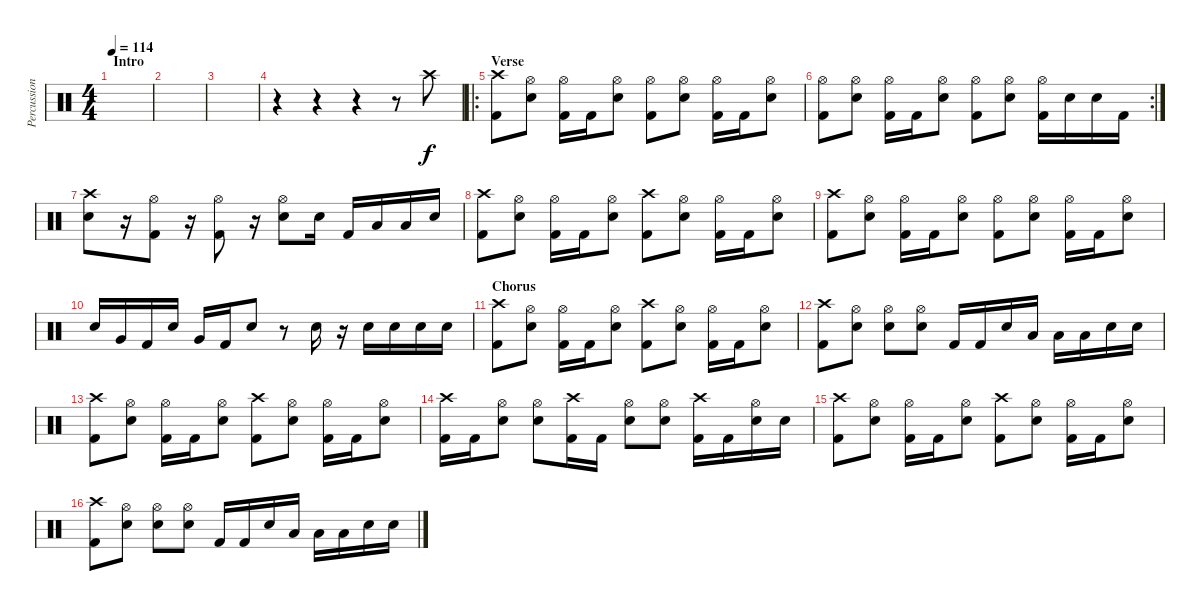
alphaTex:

\track ("Percussion" "Percussion") {instrument percussion}
\staff {score}
\articulation defaults
\ts (4 4)
\section ("" "Intro")
\tempo 114
\clef neutral
\ks c
|
|
|
r.4 r.4 r.4 r.8 "Crash high (hit)".8 |
\ro
\section ("" "Verse")
("Crash high (hit)" "Kick (hit) 2").8 ("Hi-Hat (open)" "Electric Snare (hit)").8 ("Hi-Hat (open)" "Kick (hit) 2").16 "Kick (hit) 2".16 ("Hi-Hat (open)" "Electric Snare (hit)").8 ("Hi-Hat (open)" "Kick (hit) 2").8 ("Hi-Hat (open)" "Electric Snare (hit)").8 ("Hi-Hat (open)" "Kick (hit) 2").16 "Kick (hit) 2".16 ("Hi-Hat (open)" "Electric Snare (hit)").8 |
\rc 2
("Hi-Hat (open)" "Kick (hit) 2").8 ("Hi-Hat (open)" "Electric Snare (hit)").8 ("Hi-Hat (open)" "Kick (hit) 2").16 "Kick (hit) 2".16 ("Hi-Hat (open)" "Electric Snare (hit)").8 ("Hi-Hat (open)" "Kick (hit) 2").8 ("Hi-Hat (open)" "Electric Snare (hit)").8 ("Hi-Hat (open)" "Kick (hit) 2").16 "Electric Snare (hit)".16 "Electric Snare (hit)".16 "Kick (hit) 2".16 |
("Crash high (hit)" "Electric Snare (hit)").8 r.16 ("Hi-Hat (open)" "Kick (hit) 2").8 r.16 ("Hi-Hat (open)" "Kick (hit) 2").8 r.16 ("Hi-Hat (open)" "Electric Snare (hit)").8 "Electric Snare (hit)".16 "Kick (hit) 2".16 "Low Tom (hit)".16 "Low Tom (hit)".16 "Electric Snare (hit)".16 |
("Crash high (hit)" "Kick (hit) 2").8 ("Hi-Hat (open)" "Electric Snare (hit)").8 ("Hi-Hat (open)" "Kick (hit) 2").16 "Kick (hit) 2".16 ("Hi-Hat (open)" "Electric Snare (hit)").8 ("Crash high (hit)" "Kick (hit) 2").8 ("Hi-Hat (open)" "Electric Snare (hit)").8 ("Hi-Hat (open)" "Kick (hit) 2").16 "Kick (hit) 2".16 ("Hi-Hat (open)" "Electric Snare (hit)").8 |
("Crash high (hit)" "Kick (hit) 2").8 ("Hi-Hat (open)" "Electric Snare (hit)").8 ("Hi-Hat (open)" "Kick (hit) 2").16 "Kick (hit) 2".16 ("Hi-Hat (open)" "Electric Snare (hit)").8 ("Hi-Hat (open)" "Kick (hit) 2").8 ("Hi-Hat (open)" "Electric Snare (hit)").8 ("Hi-Hat (open)" "Kick (hit) 2").16 "Kick (hit) 2".16 ("Hi-Hat (open)" "Electric Snare (hit)").8 |
"Electric Snare (hit)".16 "Very Low Tom (hit)".16 "Kick (hit) 2".16 "Electric Snare (hit)".16 "Very Low Tom (hit)".16 "Kick (hit) 2".16 "Electric Snare (hit)".8 r.8 "Electric Snare (hit)".16 r.16 "Electric Snare (hit)".16 "Electric Snare (hit)".16 "Electric Snare (hit)".16 "Electric Snare (hit)".16 |
\section ("" "Chorus")
("Crash high (hit)" "Kick (hit) 2").8 ("Hi-Hat (open)" "Electric Snare (hit)").8 ("Hi-Hat (open)" "Kick (hit) 2").16 "Kick (hit) 2".16 ("Hi-Hat (open)" "Electric Snare (hit)").8 ("Crash high (hit)" "Kick (hit) 2").8 ("Hi-Hat (open)" "Electric Snare (hit)").8 ("Hi-Hat (open)" "Kick (hit) 2").16 "Kick (hit) 2".16 ("Hi-Hat (open)" "Electric Snare (hit)").8 |
("Crash high (hit)" "Kick (hit) 2").8 ("Hi-Hat (open)" "Electric Snare (hit)").8 ("Hi-Hat (open)" "Electric Snare (hit)").8 ("Hi-Hat (open)" "Electric Snare (hit)").8 "Kick (hit) 2".16 "Kick (hit) 2".16 "Electric Snare (hit)".16 "Low Tom (hit)".16 "Low Tom (hit)".16 "Low Tom (hit)".16 "Electric Snare (hit)".16 "Electric Snare (hit)".16 |
("Crash high (hit)" "Kick (hit) 2").8 ("Hi-Hat (open)" "Electric Snare (hit)").8 ("Hi-Hat (open)" "Kick (hit) 2").16 "Kick (hit) 2".16 ("Hi-Hat (open)" "Electric Snare (hit)").8 ("Crash high (hit)" "Kick (hit) 2").8 ("Hi-Hat (open)" "Electric Snare (hit)").8 ("Hi-Hat (open)" "Kick (hit) 2").16 "Kick (hit) 2".16 ("Hi-Hat (open)" "Electric Snare (hit)").8 |
("Crash high (hit)" "Kick (hit) 2").16 "Kick (hit) 2".16 ("Hi-Hat (open)" "Electric Snare (hit)").8 ("Hi-Hat (open)" "Electric Snare (hit)").8 ("Crash high (hit)" "Kick (hit) 2").16 "Kick (hit) 2".16 ("Hi-Hat (open)" "Electric Snare (hit)").8 ("Hi-Hat (open)" "Electric Snare (hit)").8 ("Crash high (hit)" "Kick (hit) 2").16 "Kick (hit) 2".16 ("Hi-Hat (open)" "Electric Snare (hit)").16 "Electric Snare (hit)".16 |
("Crash high (hit)" "Kick (hit) 2").8 ("Hi-Hat (open)" "Electric Snare (hit)").8 ("Hi-Hat (open)" "Kick (hit) 2").16 "Kick (hit) 2".16 ("Hi-Hat (open)" "Electric Snare (hit)").8 ("Crash high (hit)" "Kick (hit) 2").8 ("Hi-Hat (open)" "Electric Snare (hit)").8 ("Hi-Hat (open)" "Kick (hit) 2").16 "Kick (hit) 2".16 ("Hi-Hat (open)" "Electric Snare (hit)").8 |
("Crash high (hit)" "Kick (hit) 2").8 ("Hi-Hat (open)" "Electric Snare (hit)").8 ("Hi-Hat (open)" "Electric Snare (hit)").8 ("Hi-Hat (open)" "Electric Snare (hit)").8 "Kick (hit) 2".16 "Kick (hit) 2".16 "Electric Snare (hit)".16 "Low Tom (hit)".16 "Low Tom (hit)".16 "Low Tom (hit)".16 "Electric Snare (hit)".16 "Electric Snare (hit)".16
